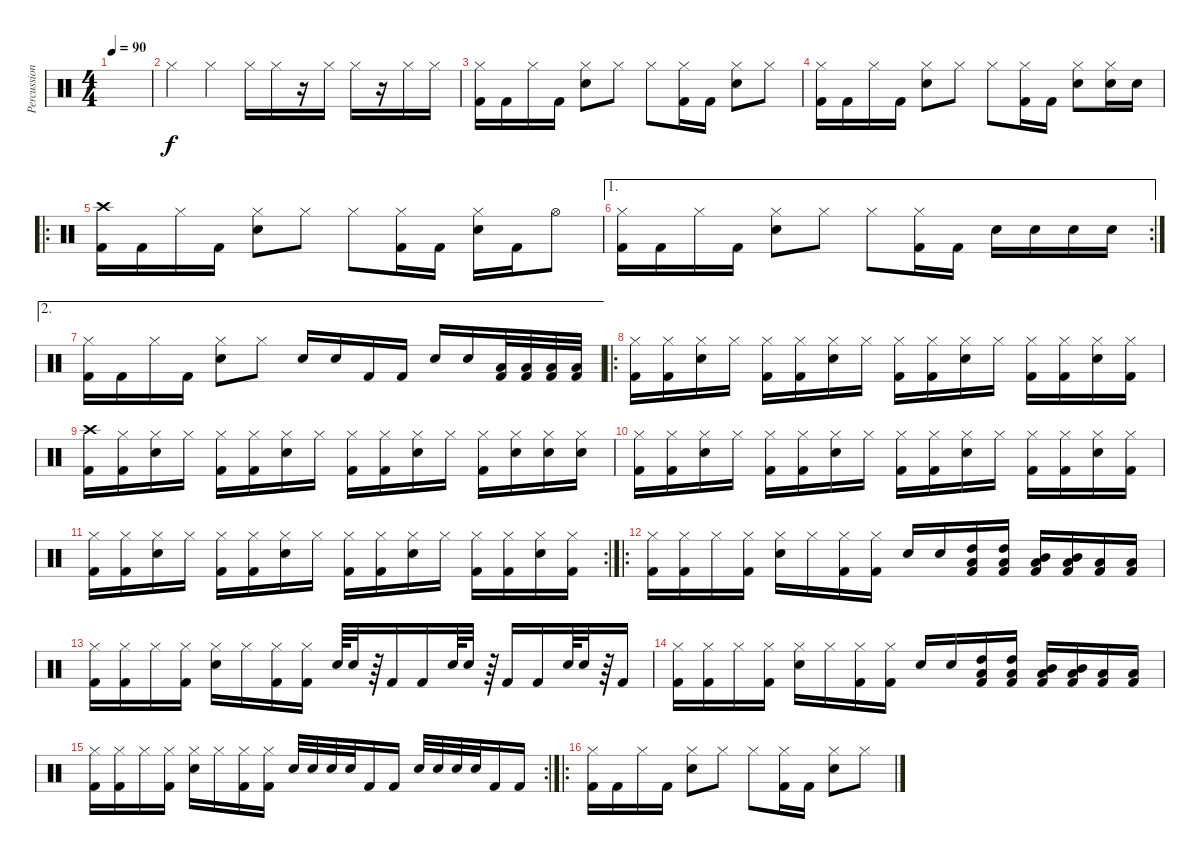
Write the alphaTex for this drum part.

\track ("Percussions" "Percussion") {instrument percussion}
\staff {score}
\articulation defaults
\ts (4 4)
\tempo 90
\clef neutral
\ks c
|
"Hi-Hat (closed)".4 "Hi-Hat (closed)".4 "Hi-Hat (closed)".16 "Hi-Hat (closed)".16 r.16 "Hi-Hat (closed)".16 "Hi-Hat (closed)".16 r.16 "Hi-Hat (closed)".16 "Hi-Hat (closed)".16 |
("Hi-Hat (closed)" "Kick (hit) 2").16 "Kick (hit) 2".16 "Hi-Hat (closed)".16 "Kick (hit) 2".16 ("Hi-Hat (closed)" "Electric Snare (hit)").8 "Hi-Hat (closed)".8 "Hi-Hat (closed)".8 ("Hi-Hat (closed)" "Kick (hit) 2").16 "Kick (hit) 2".16 ("Hi-Hat (closed)" "Electric Snare (hit)").8 "Hi-Hat (closed)".8 |
("Hi-Hat (closed)" "Kick (hit) 2").16 "Kick (hit) 2".16 "Hi-Hat (closed)".16 "Kick (hit) 2".16 ("Hi-Hat (closed)" "Electric Snare (hit)").8 "Hi-Hat (closed)".8 "Hi-Hat (closed)".8 ("Hi-Hat (closed)" "Kick (hit) 2").16 "Kick (hit) 2".16 ("Hi-Hat (closed)" "Electric Snare (hit)").8 ("Hi-Hat (closed)" "Electric Snare (hit)").16 "Electric Snare (hit)".16 |
\ro
("Crash high (hit)" "Kick (hit) 2").16 "Kick (hit) 2".16 "Hi-Hat (closed)".16 "Kick (hit) 2".16 ("Hi-Hat (closed)" "Electric Snare (hit)").8 "Hi-Hat (closed)".8 "Hi-Hat (closed)".8 ("Hi-Hat (closed)" "Kick (hit) 2").16 "Kick (hit) 2".16 ("Hi-Hat (closed)" "Electric Snare (hit)").16 "Kick (hit) 2".16 "Hi-Hat (open)".8 |
\ae 1
\rc 2
("Hi-Hat (closed)" "Kick (hit) 2").16 "Kick (hit) 2".16 "Hi-Hat (closed)".16 "Kick (hit) 2".16 ("Hi-Hat (closed)" "Electric Snare (hit)").8 "Hi-Hat (closed)".8 "Hi-Hat (closed)".8 ("Hi-Hat (closed)" "Kick (hit) 2").16 "Kick (hit) 2".16 "Electric Snare (hit)".16 "Electric Snare (hit)".16 "Electric Snare (hit)".16 "Electric Snare (hit)".16 |
\ae 2
("Hi-Hat (closed)" "Kick (hit) 2").16 "Kick (hit) 2".16 "Hi-Hat (closed)".16 "Kick (hit) 2".16 ("Hi-Hat (closed)" "Electric Snare (hit)").8 "Hi-Hat (closed)".8 "Electric Snare (hit)".16 "Electric Snare (hit)".16 "Kick (hit) 2".16 "Kick (hit) 2".16 "Electric Snare (hit)".16 "Electric Snare (hit)".16 ("Low Floor Tom (hit)" "Kick (hit) 2").32 ("Low Floor Tom (hit)" "Kick (hit) 2").32 ("Low Floor Tom (hit)" "Kick (hit) 2").32 ("Low Floor Tom (hit)" "Kick (hit) 2").32 |
\ro
("Hi-Hat (closed)" "Kick (hit) 2").16 ("Hi-Hat (closed)" "Kick (hit) 2").16 ("Hi-Hat (closed)" "Electric Snare (hit)").16 "Hi-Hat (closed)".16 ("Hi-Hat (closed)" "Kick (hit) 2").16 ("Hi-Hat (closed)" "Kick (hit) 2").16 ("Hi-Hat (closed)" "Electric Snare (hit)").16 "Hi-Hat (closed)".16 ("Hi-Hat (closed)" "Kick (hit) 2").16 ("Hi-Hat (closed)" "Kick (hit) 2").16 ("Hi-Hat (closed)" "Electric Snare (hit)").16 "Hi-Hat (closed)".16 ("Hi-Hat (closed)" "Kick (hit) 2").16 ("Hi-Hat (closed)" "Kick (hit) 2").16 ("Hi-Hat (closed)" "Electric Snare (hit)").16 ("Hi-Hat (closed)" "Kick (hit) 2").16 |
("Crash high (hit)" "Kick (hit) 2").16 ("Hi-Hat (closed)" "Kick (hit) 2").16 ("Hi-Hat (closed)" "Electric Snare (hit)").16 "Hi-Hat (closed)".16 ("Hi-Hat (closed)" "Kick (hit) 2").16 ("Hi-Hat (closed)" "Kick (hit) 2").16 ("Hi-Hat (closed)" "Electric Snare (hit)").16 "Hi-Hat (closed)".16 ("Hi-Hat (closed)" "Kick (hit) 2").16 ("Hi-Hat (closed)" "Kick (hit) 2").16 ("Hi-Hat (closed)" "Electric Snare (hit)").16 "Hi-Hat (closed)".16 ("Hi-Hat (closed)" "Kick (hit) 2").16 ("Hi-Hat (closed)" "Electric Snare (hit)").16 ("Hi-Hat (closed)" "Electric Snare (hit)").16 ("Hi-Hat (closed)" "Electric Snare (hit)").16 |
("Hi-Hat (closed)" "Kick (hit) 2").16 ("Hi-Hat (closed)" "Kick (hit) 2").16 ("Hi-Hat (closed)" "Electric Snare (hit)").16 "Hi-Hat (closed)".16 ("Hi-Hat (closed)" "Kick (hit) 2").16 ("Hi-Hat (closed)" "Kick (hit) 2").16 ("Hi-Hat (closed)" "Electric Snare (hit)").16 "Hi-Hat (closed)".16 ("Hi-Hat (closed)" "Kick (hit) 2").16 ("Hi-Hat (closed)" "Kick (hit) 2").16 ("Hi-Hat (closed)" "Electric Snare (hit)").16 "Hi-Hat (closed)".16 ("Hi-Hat (closed)" "Kick (hit) 2").16 ("Hi-Hat (closed)" "Kick (hit) 2").16 ("Hi-Hat (closed)" "Electric Snare (hit)").16 ("Hi-Hat (closed)" "Kick (hit) 2").16 |
\rc 2
("Hi-Hat (closed)" "Kick (hit) 2").16 ("Hi-Hat (closed)" "Kick (hit) 2").16 ("Hi-Hat (closed)" "Electric Snare (hit)").16 "Hi-Hat (closed)".16 ("Hi-Hat (closed)" "Kick (hit) 2").16 ("Hi-Hat (closed)" "Kick (hit) 2").16 ("Hi-Hat (closed)" "Electric Snare (hit)").16 "Hi-Hat (closed)".16 ("Hi-Hat (closed)" "Kick (hit) 2").16 ("Hi-Hat (closed)" "Kick (hit) 2").16 ("Hi-Hat (closed)" "Electric Snare (hit)").16 "Hi-Hat (closed)".16 ("Hi-Hat (closed)" "Kick (hit) 2").16 ("Hi-Hat (closed)" "Kick (hit) 2").16 ("Hi-Hat (closed)" "Electric Snare (hit)").16 ("Hi-Hat (closed)" "Kick (hit) 2").16 |
\ro
("Hi-Hat (closed)" "Kick (hit) 2").16 ("Hi-Hat (closed)" "Kick (hit) 2").16 "Hi-Hat (closed)".16 ("Hi-Hat (closed)" "Kick (hit) 2").16 ("Hi-Hat (closed)" "Electric Snare (hit)").16 "Hi-Hat (closed)".16 ("Hi-Hat (closed)" "Kick (hit) 2").16 ("Hi-Hat (closed)" "Kick (hit) 2").16 "Electric Snare (hit)".16 "Electric Snare (hit)".16 ("Low Floor Tom (hit)" "High Tom (hit)" "Kick (hit) 2").16 ("Low Floor Tom (hit)" "High Tom (hit)" "Kick (hit) 2").16 ("Low Floor Tom (hit)" "Mid Tom (hit)" "Kick (hit) 2").16 ("Low Floor Tom (hit)" "Mid Tom (hit)" "Kick (hit) 2").16 ("Low Floor Tom (hit)" "Kick (hit) 2").16 ("Low Floor Tom (hit)" "Kick (hit) 2").16 |
("Hi-Hat (closed)" "Kick (hit) 2").16 ("Hi-Hat (closed)" "Kick (hit) 2").16 "Hi-Hat (closed)".16 ("Hi-Hat (closed)" "Kick (hit) 2").16 ("Hi-Hat (closed)" "Electric Snare (hit)").16 "Hi-Hat (closed)".16 ("Hi-Hat (closed)" "Kick (hit) 2").16 ("Hi-Hat (closed)" "Kick (hit) 2").16 "Electric Snare (hit)".64 "Electric Snare (hit)".32 r.64 "Kick (hit) 2".16 "Kick (hit) 2".16 "Electric Snare (hit)".64 "Electric Snare (hit)".32 r.64 "Kick (hit) 2".16 "Kick (hit) 2".16 "Electric Snare (hit)".64 "Electric Snare (hit)".32 r.64 "Kick (hit) 2".16 |
("Hi-Hat (closed)" "Kick (hit) 2").16 ("Hi-Hat (closed)" "Kick (hit) 2").16 "Hi-Hat (closed)".16 ("Hi-Hat (closed)" "Kick (hit) 2").16 ("Hi-Hat (closed)" "Electric Snare (hit)").16 "Hi-Hat (closed)".16 ("Hi-Hat (closed)" "Kick (hit) 2").16 ("Hi-Hat (closed)" "Kick (hit) 2").16 "Electric Snare (hit)".16 "Electric Snare (hit)".16 ("Low Floor Tom (hit)" "High Tom (hit)" "Kick (hit) 2").16 ("Low Floor Tom (hit)" "High Tom (hit)" "Kick (hit) 2").16 ("Low Floor Tom (hit)" "Mid Tom (hit)" "Kick (hit) 2").16 ("Low Floor Tom (hit)" "Mid Tom (hit)" "Kick (hit) 2").16 ("Low Floor Tom (hit)" "Kick (hit) 2").16 ("Low Floor Tom (hit)" "Kick (hit) 2").16 |
\rc 2
("Hi-Hat (closed)" "Kick (hit) 2").16 ("Hi-Hat (closed)" "Kick (hit) 2").16 "Hi-Hat (closed)".16 ("Hi-Hat (closed)" "Kick (hit) 2").16 ("Hi-Hat (closed)" "Electric Snare (hit)").16 "Hi-Hat (closed)".16 ("Hi-Hat (closed)" "Kick (hit) 2").16 ("Hi-Hat (closed)" "Kick (hit) 2").16 "Electric Snare (hit)".32 "Electric Snare (hit)".32 "Electric Snare (hit)".32 "Electric Snare (hit)".32 "Kick (hit) 2".16 "Kick (hit) 2".16 "Electric Snare (hit)".32 "Electric Snare (hit)".32 "Electric Snare (hit)".32 "Electric Snare (hit)".32 "Kick (hit) 2".16 "Kick (hit) 2".16 |
\ro
("Hi-Hat (closed)" "Kick (hit) 2").16 "Kick (hit) 2".16 "Hi-Hat (closed)".16 "Kick (hit) 2".16 ("Hi-Hat (closed)" "Electric Snare (hit)").8 "Hi-Hat (closed)".8 "Hi-Hat (closed)".8 ("Hi-Hat (closed)" "Kick (hit) 2").16 "Kick (hit) 2".16 ("Hi-Hat (closed)" "Electric Snare (hit)").8 "Hi-Hat (closed)".8
